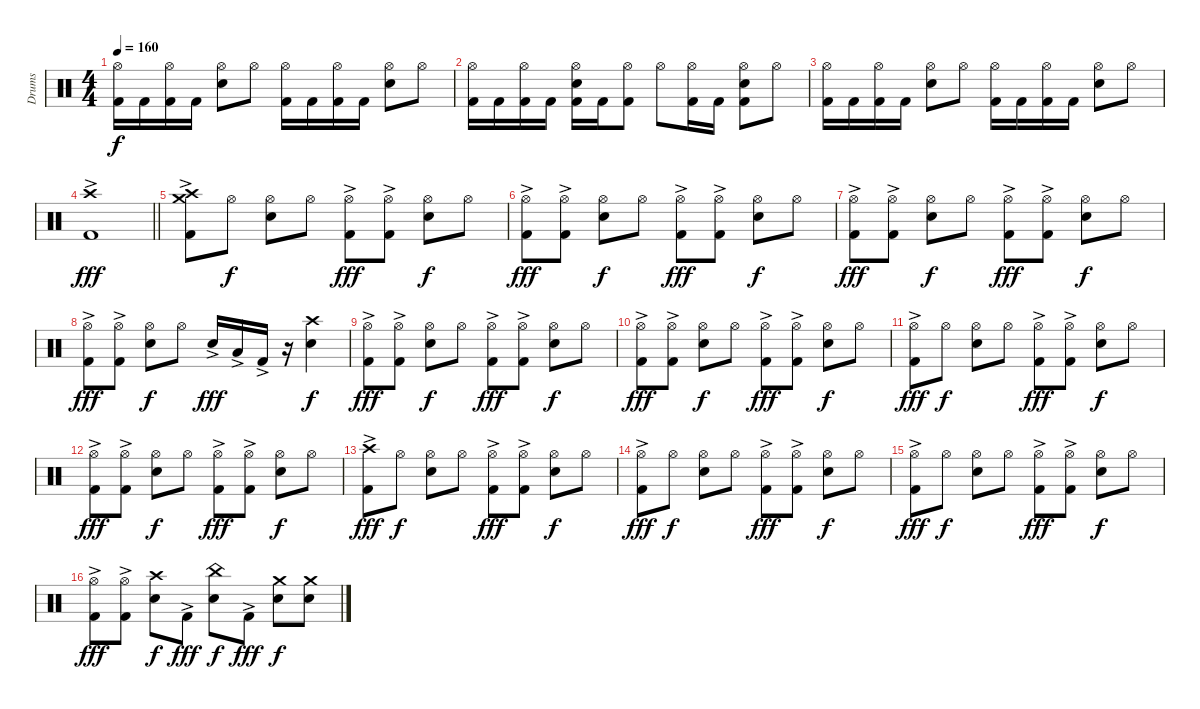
\track ("Drums" "Drums") {instrument percussion}
\staff {score}
\articulation defaults
\ts (4 4)
\tempo 160
\clef neutral
\ks c
("Hi-Hat (open)" "Kick (hit) 2").16{dy f} "Kick (hit) 2".16 ("Hi-Hat (open)" "Kick (hit) 2").16 "Kick (hit) 2".16 ("Hi-Hat (open)" "Snare (hit) 2").8 "Hi-Hat (open)".8 ("Hi-Hat (open)" "Kick (hit) 2").16 "Kick (hit) 2".16 ("Hi-Hat (open)" "Kick (hit) 2").16 "Kick (hit) 2".16 ("Hi-Hat (open)" "Snare (hit) 2").8 "Hi-Hat (open)".8 |
("Hi-Hat (open)" "Kick (hit) 2").16 "Kick (hit) 2".16 ("Hi-Hat (open)" "Kick (hit) 2").16 "Kick (hit) 2".16 ("Hi-Hat (open)" "Snare (hit) 2" "Kick (hit) 2").16 "Kick (hit) 2".16 ("Hi-Hat (open)" "Kick (hit) 2").8 "Hi-Hat (open)".8 ("Hi-Hat (open)" "Kick (hit) 2").16 "Kick (hit) 2".16 ("Hi-Hat (open)" "Snare (hit) 2" "Kick (hit) 2").8 "Hi-Hat (open)".8 |
("Hi-Hat (open)" "Kick (hit) 2").16 "Kick (hit) 2".16 ("Hi-Hat (open)" "Kick (hit) 2").16 "Kick (hit) 2".16 ("Hi-Hat (open)" "Snare (hit) 2").8 "Hi-Hat (open)".8 ("Hi-Hat (open)" "Kick (hit) 2").16 "Kick (hit) 2".16 ("Hi-Hat (open)" "Kick (hit) 2").16 "Kick (hit) 2".16 ("Hi-Hat (open)" "Snare (hit) 2").8 "Hi-Hat (open)".8 |
\barLineRight lightlight
("Crash high (hit)" "Kick (hit) 2"{ac}).1{dy fff} |
("Crash high (hit)" "Crash medium (hit)" "Kick (hit) 2"{ac}).8 "Hi-Hat (open)".8{dy f} ("Hi-Hat (open)" "Snare (hit) 2").8 "Hi-Hat (open)".8 ("Hi-Hat (open)" "Kick (hit) 2"{ac}).8{dy fff} ("Hi-Hat (open)" "Kick (hit) 2"{ac}).8 ("Hi-Hat (open)" "Snare (hit) 2").8{dy f} "Hi-Hat (open)".8 |
("Hi-Hat (open)" "Kick (hit) 2"{ac}).8{dy fff} ("Hi-Hat (open)" "Kick (hit) 2"{ac}).8 ("Hi-Hat (open)" "Snare (hit) 2").8{dy f} "Hi-Hat (open)".8 ("Hi-Hat (open)" "Kick (hit) 2"{ac}).8{dy fff} ("Hi-Hat (open)" "Kick (hit) 2"{ac}).8 ("Hi-Hat (open)" "Snare (hit) 2").8{dy f} "Hi-Hat (open)".8 |
("Hi-Hat (open)" "Kick (hit) 2"{ac}).8{dy fff} ("Hi-Hat (open)" "Kick (hit) 2"{ac}).8 ("Hi-Hat (open)" "Snare (hit) 2").8{dy f} "Hi-Hat (open)".8 ("Hi-Hat (open)" "Kick (hit) 2"{ac}).8{dy fff} ("Hi-Hat (open)" "Kick (hit) 2"{ac}).8 ("Hi-Hat (open)" "Snare (hit) 2").8{dy f} "Hi-Hat (open)".8 |
("Hi-Hat (open)" "Kick (hit) 2"{ac}).8{dy fff} ("Hi-Hat (open)" "Kick (hit) 2"{ac}).8 ("Hi-Hat (open)" "Snare (hit) 2").8{dy f} "Hi-Hat (open)".8 "Snare (hit) 2"{ac}.16{dy fff} "Low Tom (hit)"{ac}.16 "Kick (hit) 2"{ac}.16 r.16 ("Crash high (hit)" "Snare (hit) 2").4{dy f} |
("Hi-Hat (open)" "Kick (hit) 2"{ac}).8{dy fff} ("Hi-Hat (open)" "Kick (hit) 2"{ac}).8 ("Hi-Hat (open)" "Snare (hit) 2").8{dy f} "Hi-Hat (open)".8 ("Hi-Hat (open)" "Kick (hit) 2"{ac}).8{dy fff} ("Hi-Hat (open)" "Kick (hit) 2"{ac}).8 ("Hi-Hat (open)" "Snare (hit) 2").8{dy f} "Hi-Hat (open)".8 |
("Hi-Hat (open)" "Kick (hit) 2"{ac}).8{dy fff} ("Hi-Hat (open)" "Kick (hit) 2"{ac}).8 ("Hi-Hat (open)" "Snare (hit) 2").8{dy f} "Hi-Hat (open)".8 ("Hi-Hat (open)" "Kick (hit) 2"{ac}).8{dy fff} ("Hi-Hat (open)" "Kick (hit) 2"{ac}).8 ("Hi-Hat (open)" "Snare (hit) 2").8{dy f} "Hi-Hat (open)".8 |
("Hi-Hat (open)" "Kick (hit) 2"{ac}).8{dy fff} "Hi-Hat (open)".8{dy f} ("Hi-Hat (open)" "Snare (hit) 2").8 "Hi-Hat (open)".8 ("Hi-Hat (open)" "Kick (hit) 2"{ac}).8{dy fff} ("Hi-Hat (open)" "Kick (hit) 2"{ac}).8 ("Hi-Hat (open)" "Snare (hit) 2").8{dy f} "Hi-Hat (open)".8 |
("Hi-Hat (open)" "Kick (hit) 2"{ac}).8{dy fff} ("Hi-Hat (open)" "Kick (hit) 2"{ac}).8 ("Hi-Hat (open)" "Snare (hit) 2").8{dy f} "Hi-Hat (open)".8 ("Hi-Hat (open)" "Kick (hit) 2"{ac}).8{dy fff} ("Hi-Hat (open)" "Kick (hit) 2"{ac}).8 ("Hi-Hat (open)" "Snare (hit) 2").8{dy f} "Hi-Hat (open)".8 |
("Crash high (hit)" "Kick (hit) 2"{ac}).8{dy fff} "Hi-Hat (open)".8{dy f} ("Hi-Hat (open)" "Snare (hit) 2").8 "Hi-Hat (open)".8 ("Hi-Hat (open)" "Kick (hit) 2"{ac}).8{dy fff} ("Hi-Hat (open)" "Kick (hit) 2"{ac}).8 ("Hi-Hat (open)" "Snare (hit) 2").8{dy f} "Hi-Hat (open)".8 |
("Hi-Hat (open)" "Kick (hit) 2"{ac}).8{dy fff} "Hi-Hat (open)".8{dy f} ("Hi-Hat (open)" "Snare (hit) 2").8 "Hi-Hat (open)".8 ("Hi-Hat (open)" "Kick (hit) 2"{ac}).8{dy fff} ("Hi-Hat (open)" "Kick (hit) 2"{ac}).8 ("Hi-Hat (open)" "Snare (hit) 2").8{dy f} "Hi-Hat (open)".8 |
("Hi-Hat (open)" "Kick (hit) 2"{ac}).8{dy fff} "Hi-Hat (open)".8{dy f} ("Hi-Hat (open)" "Snare (hit) 2").8 "Hi-Hat (open)".8 ("Hi-Hat (open)" "Kick (hit) 2"{ac}).8{dy fff} ("Hi-Hat (open)" "Kick (hit) 2"{ac}).8 ("Hi-Hat (open)" "Snare (hit) 2").8{dy f} "Hi-Hat (open)".8 |
("Hi-Hat (open)" "Kick (hit) 2"{ac}).8{dy fff} ("Hi-Hat (open)" "Kick (hit) 2"{ac}).8 ("Crash high (hit)" "Snare (hit) 2").8{dy f} "Kick (hit) 2"{ac}.8{dy fff} ("China (hit)" "Snare (hit) 2").8{dy f} "Kick (hit) 2"{ac}.8{dy fff} ("Crash medium (hit)" "Snare (hit) 2").8{dy f} ("Crash medium (hit)" "Snare (hit) 2").8
